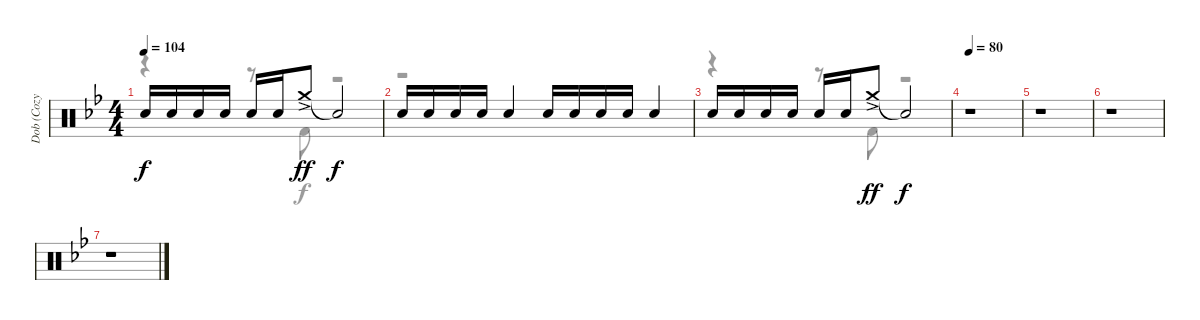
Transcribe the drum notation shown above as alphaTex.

\track ("Dob (Cozy Powell)" "Dob (Cozy ") {instrument percussion}
\staff {score}
\articulation defaults
\voice
\ts (4 4)
\tempo 104
\clef neutral
\ks bb "Electric Snare (hit)".16{dy f} "Electric Snare (hit)".16 "Electric Snare (hit)".16 "Electric Snare (hit)".16 "Electric Snare (hit)".16 "Electric Snare (hit)".16 "Crash medium (hit)"{ac}.8{dy ff} "Snare (hit)"{t}.2{dy f}
|
"Electric Snare (hit)".16 "Electric Snare (hit)".16 "Electric Snare (hit)".16 "Electric Snare (hit)".16 "Electric Snare (hit)".4 "Electric Snare (hit)".16 "Electric Snare (hit)".16 "Electric Snare (hit)".16 "Electric Snare (hit)".16 "Electric Snare (hit)".4 |
"Electric Snare (hit)".16 "Electric Snare (hit)".16 "Electric Snare (hit)".16 "Electric Snare (hit)".16 "Electric Snare (hit)".16 "Electric Snare (hit)".16 "Crash medium (hit)"{ac}.8{dy ff} "Snare (hit)"{t}.2{dy f} |
\tempo 80
r.1 |
r.1 |
r.1 |
r.1 |
\voice
\clef neutral
\ottava regular
\simile none
\ks bb
r.4{dy f} r.8 "Kick (hit) 2".8 r.2 |
r.1 |
r.4 r.8 "Kick (hit) 2".8 r.2 |
r.1 |
r.1 |
r.1 |
r.1 |
